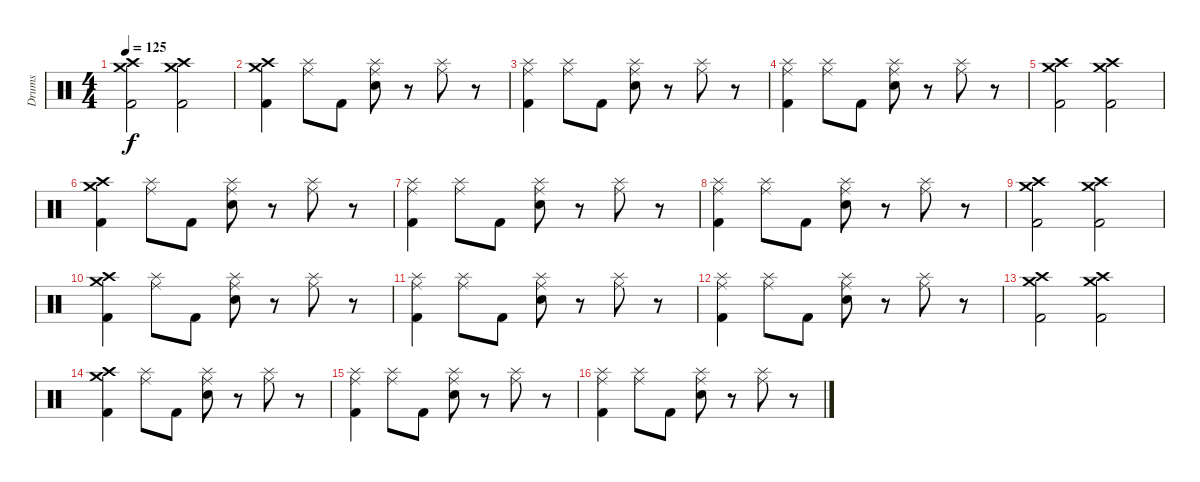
\track ("Drums" "Drums") {instrument percussion}
\staff {score}
\articulation defaults
\ts (4 4)
\tempo 125
\clef neutral
\ks c
("Crash medium (hit)" "Crash high (hit)" "Kick (hit) 2").2{dy f} ("Crash high (hit)" "Crash medium (hit)" "Kick (hit) 2").2 |
("Crash medium (hit)" "Crash high (hit)" "Kick (hit) 2").4 ("Ride (middle)" "Splash (hit)").8 "Kick (hit) 2".8 ("Ride (middle)" "Snare (hit) 2" "Splash (hit)").8 r.8 ("Ride (middle)" "Splash (hit)").8 r.8 |
("Ride (middle)" "Splash (hit)" "Kick (hit) 2").4 ("Ride (middle)" "Splash (hit)").8 "Kick (hit) 2".8 ("Ride (middle)" "Snare (hit) 2" "Splash (hit)").8 r.8 ("Ride (middle)" "Splash (hit)").8 r.8 |
("Ride (middle)" "Splash (hit)" "Kick (hit) 2").4 ("Ride (middle)" "Splash (hit)").8 "Kick (hit) 2".8 ("Ride (middle)" "Snare (hit) 2" "Splash (hit)").8 r.8 ("Ride (middle)" "Splash (hit)").8 r.8 |
("Crash medium (hit)" "Crash high (hit)" "Kick (hit) 2").2 ("Crash high (hit)" "Crash medium (hit)" "Kick (hit) 2").2 |
("Crash medium (hit)" "Crash high (hit)" "Kick (hit) 2").4 ("Ride (middle)" "Splash (hit)").8 "Kick (hit) 2".8 ("Ride (middle)" "Snare (hit) 2" "Splash (hit)").8 r.8 ("Ride (middle)" "Splash (hit)").8 r.8 |
("Ride (middle)" "Splash (hit)" "Kick (hit) 2").4 ("Ride (middle)" "Splash (hit)").8 "Kick (hit) 2".8 ("Ride (middle)" "Snare (hit) 2" "Splash (hit)").8 r.8 ("Ride (middle)" "Splash (hit)").8 r.8 |
("Ride (middle)" "Splash (hit)" "Kick (hit) 2").4 ("Ride (middle)" "Splash (hit)").8 "Kick (hit) 2".8 ("Ride (middle)" "Snare (hit) 2" "Splash (hit)").8 r.8 ("Ride (middle)" "Splash (hit)").8 r.8 |
("Crash medium (hit)" "Crash high (hit)" "Kick (hit) 2").2 ("Crash high (hit)" "Crash medium (hit)" "Kick (hit) 2").2 |
("Crash medium (hit)" "Crash high (hit)" "Kick (hit) 2").4 ("Ride (middle)" "Splash (hit)").8 "Kick (hit) 2".8 ("Ride (middle)" "Snare (hit) 2" "Splash (hit)").8 r.8 ("Ride (middle)" "Splash (hit)").8 r.8 |
("Ride (middle)" "Splash (hit)" "Kick (hit) 2").4 ("Ride (middle)" "Splash (hit)").8 "Kick (hit) 2".8 ("Ride (middle)" "Snare (hit) 2" "Splash (hit)").8 r.8 ("Ride (middle)" "Splash (hit)").8 r.8 |
("Ride (middle)" "Splash (hit)" "Kick (hit) 2").4 ("Ride (middle)" "Splash (hit)").8 "Kick (hit) 2".8 ("Ride (middle)" "Snare (hit) 2" "Splash (hit)").8 r.8 ("Ride (middle)" "Splash (hit)").8 r.8 |
("Crash medium (hit)" "Crash high (hit)" "Kick (hit) 2").2 ("Crash high (hit)" "Crash medium (hit)" "Kick (hit) 2").2 |
("Crash medium (hit)" "Crash high (hit)" "Kick (hit) 2").4 ("Ride (middle)" "Splash (hit)").8 "Kick (hit) 2".8 ("Ride (middle)" "Snare (hit) 2" "Splash (hit)").8 r.8 ("Ride (middle)" "Splash (hit)").8 r.8 |
("Ride (middle)" "Splash (hit)" "Kick (hit) 2").4 ("Ride (middle)" "Splash (hit)").8 "Kick (hit) 2".8 ("Ride (middle)" "Snare (hit) 2" "Splash (hit)").8 r.8 ("Ride (middle)" "Splash (hit)").8 r.8 |
("Ride (middle)" "Splash (hit)" "Kick (hit) 2").4 ("Ride (middle)" "Splash (hit)").8 "Kick (hit) 2".8 ("Ride (middle)" "Snare (hit) 2" "Splash (hit)").8 r.8 ("Ride (middle)" "Splash (hit)").8 r.8
